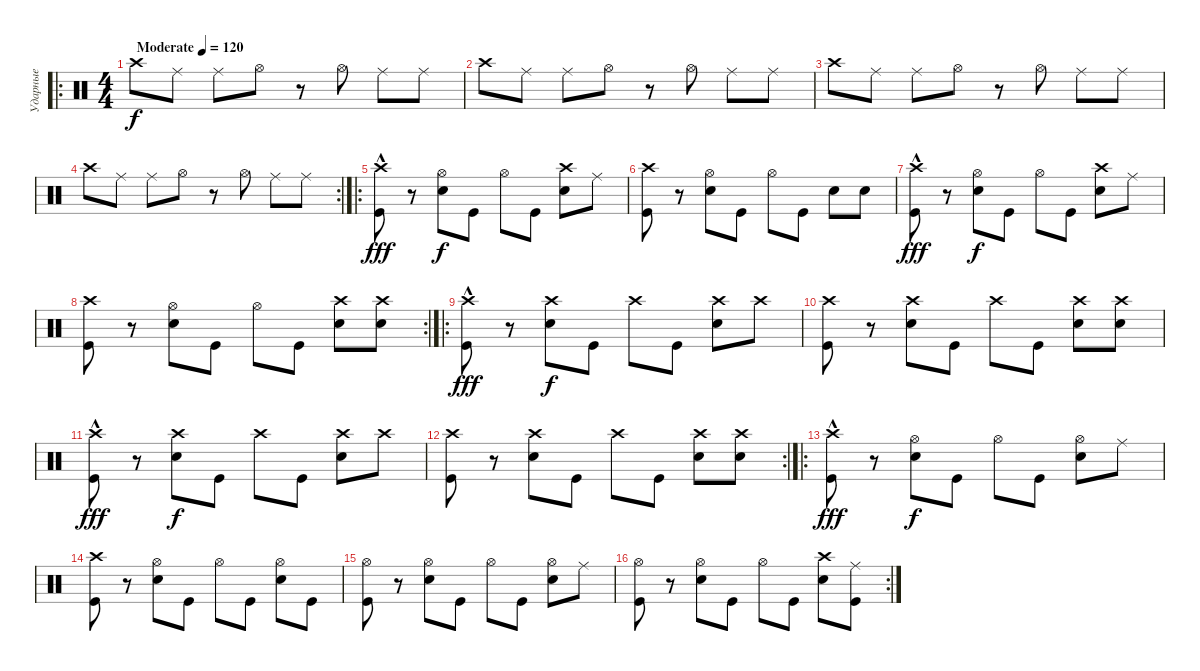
\track ("Ударные" "Ударные") {instrument percussion}
\staff {score}
\articulation defaults
\ro
\ts (4 4)
\tempo (120 "Moderate")
\clef neutral
\ks c "Crash high (hit)".8{dy f} "Ride (middle)".8 "Ride (middle)".8 "Hi-Hat (open)".8
r.8 "Hi-Hat (open)".8 "Ride (middle)".8 "Ride (middle)".8 |
"Crash high (hit)".8 "Ride (middle)".8 "Ride (middle)".8 "Hi-Hat (open)".8 r.8 "Hi-Hat (open)".8 "Ride (middle)".8 "Ride (middle)".8 |
"Crash high (hit)".8 "Ride (middle)".8 "Ride (middle)".8 "Hi-Hat (open)".8 r.8 "Hi-Hat (open)".8 "Ride (middle)".8 "Ride (middle)".8 |
\rc 2 "Crash high (hit)".8 "Ride (middle)".8 "Ride (middle)".8 "Hi-Hat (open)".8
r.8 "Hi-Hat (open)".8 "Ride (middle)".8 "Ride (middle)".8 |
\ro
("Kick (hit)" "Crash high (hit)"{hac}).8{dy fff} r.8 ("Hi-Hat (open)" "Snare (hit) 2").8{dy f} "Kick (hit)".8 "Hi-Hat (open)".8 "Kick (hit)".8 ("Snare (hit) 2" "Crash high (hit)").8 "Ride (middle)".8 |
("Kick (hit)" "Crash high (hit)").8 r.8 ("Snare (hit) 2" "Hi-Hat (open)").8 "Kick (hit)".8 "Hi-Hat (open)".8 "Kick (hit)".8 "Snare (hit) 2".8 "Snare (hit) 2".8 |
("Kick (hit)" "Crash high (hit)"{hac}).8{dy fff} r.8 ("Hi-Hat (open)" "Snare (hit) 2").8{dy f} "Kick (hit)".8 "Hi-Hat (open)".8 "Kick (hit)".8 ("Snare (hit) 2" "Crash high (hit)").8 "Ride (middle)".8 |
\rc 2
("Kick (hit)" "Crash high (hit)").8 r.8 ("Snare (hit) 2" "Hi-Hat (open)").8 "Kick (hit)".8 "Hi-Hat (open)".8 "Kick (hit)".8 ("Snare (hit) 2" "Crash high (hit)").8 ("Snare (hit) 2" "Crash high (hit)").8 |
\ro
("Kick (hit)" "Crash high (hit)"{hac}).8{dy fff} r.8 ("Crash high (hit)" "Snare (hit) 2").8{dy f} "Kick (hit)".8 "Crash high (hit)".8 "Kick (hit)".8 ("Snare (hit) 2" "Crash high (hit)").8 "Crash high (hit)".8 |
("Kick (hit)" "Crash high (hit)").8 r.8 ("Snare (hit) 2" "Crash high (hit)").8 "Kick (hit)".8 "Crash high (hit)".8 "Kick (hit)".8 ("Snare (hit) 2" "Crash high (hit)").8 ("Snare (hit) 2" "Crash high (hit)").8 |
("Kick (hit)" "Crash high (hit)"{hac}).8{dy fff} r.8 ("Crash high (hit)" "Snare (hit) 2").8{dy f} "Kick (hit)".8 "Crash high (hit)".8 "Kick (hit)".8 ("Snare (hit) 2" "Crash high (hit)").8 "Crash high (hit)".8 |
\rc 2
("Kick (hit)" "Crash high (hit)").8 r.8 ("Snare (hit) 2" "Crash high (hit)").8 "Kick (hit)".8 "Crash high (hit)".8 "Kick (hit)".8 ("Snare (hit) 2" "Crash high (hit)").8 ("Snare (hit) 2" "Crash high (hit)").8 |
\ro
("Kick (hit)" "Crash high (hit)"{hac}).8{dy fff} r.8 ("Hi-Hat (open)" "Snare (hit) 2").8{dy f} "Kick (hit)".8 "Hi-Hat (open)".8 "Kick (hit)".8 ("Snare (hit) 2" "Hi-Hat (open)").8 "Ride (middle)".8 |
("Kick (hit)" "Crash high (hit)").8 r.8 ("Snare (hit) 2" "Hi-Hat (open)").8 "Kick (hit)".8 "Hi-Hat (open)".8 "Kick (hit)".8 ("Snare (hit) 2" "Hi-Hat (open)").8 "Kick (hit)".8 |
("Kick (hit)" "Hi-Hat (open)").8 r.8 ("Hi-Hat (open)" "Snare (hit) 2").8 "Kick (hit)".8 "Hi-Hat (open)".8 "Kick (hit)".8 ("Snare (hit) 2" "Hi-Hat (open)").8 "Ride (middle)".8 |
\rc 2
("Kick (hit)" "Hi-Hat (open)").8 r.8 ("Snare (hit) 2" "Hi-Hat (open)").8 "Kick (hit)".8 "Hi-Hat (open)".8 "Kick (hit)".8 ("Snare (hit) 2" "Crash high (hit)").8 ("Ride (middle)" "Kick (hit)").8
